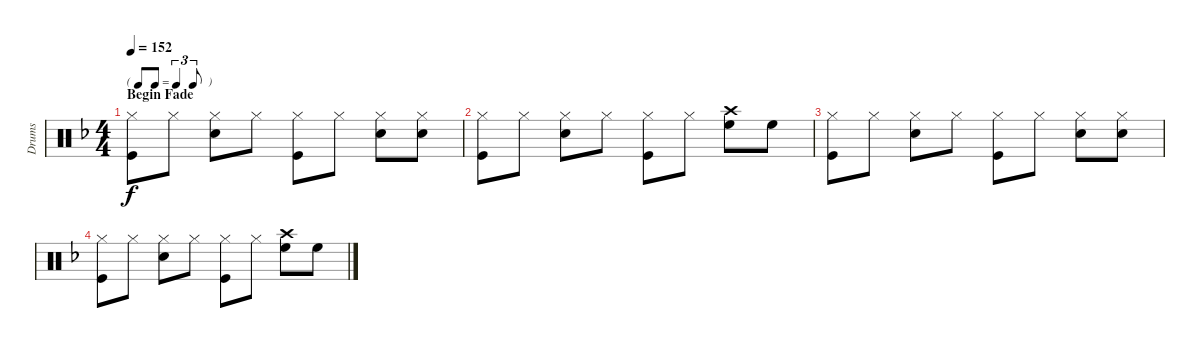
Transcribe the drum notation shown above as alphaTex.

\track ("Drums" "Drums") {instrument percussion}
\staff {score}
\articulation defaults
\ts (4 4)
\tf triplet8th
\section ("" "Begin Fade")
\tempo 152
\clef neutral
\ks f
("Hi-Hat (closed)" "Kick (hit)").8{dy f volume 6} "Hi-Hat (closed)".8 ("Hi-Hat (closed)" "Snare (hit) 2").8 "Hi-Hat (closed)".8 ("Hi-Hat (closed)" "Kick (hit)").8 "Hi-Hat (closed)".8 ("Hi-Hat (closed)" "Snare (hit) 2").8 ("Hi-Hat (closed)" "Snare (hit) 2").8 |
("Hi-Hat (closed)" "Kick (hit)").8 "Hi-Hat (closed)".8 ("Hi-Hat (closed)" "Snare (hit) 2").8 "Hi-Hat (closed)".8 ("Hi-Hat (closed)" "Kick (hit)").8 "Hi-Hat (closed)".8 ("Crash high (hit)" "High Floor Tom (hit)").8 "High Floor Tom (hit)".8 |
("Hi-Hat (closed)" "Kick (hit)").8{volume 3} "Hi-Hat (closed)".8 ("Hi-Hat (closed)" "Snare (hit) 2").8 "Hi-Hat (closed)".8 ("Hi-Hat (closed)" "Kick (hit)").8 "Hi-Hat (closed)".8 ("Hi-Hat (closed)" "Snare (hit) 2").8 ("Hi-Hat (closed)" "Snare (hit) 2").8 |
("Hi-Hat (closed)" "Kick (hit)").8 "Hi-Hat (closed)".8 ("Hi-Hat (closed)" "Snare (hit) 2").8 "Hi-Hat (closed)".8 ("Hi-Hat (closed)" "Kick (hit)").8 "Hi-Hat (closed)".8 ("Crash high (hit)" "High Floor Tom (hit)").8 "High Floor Tom (hit)".8
